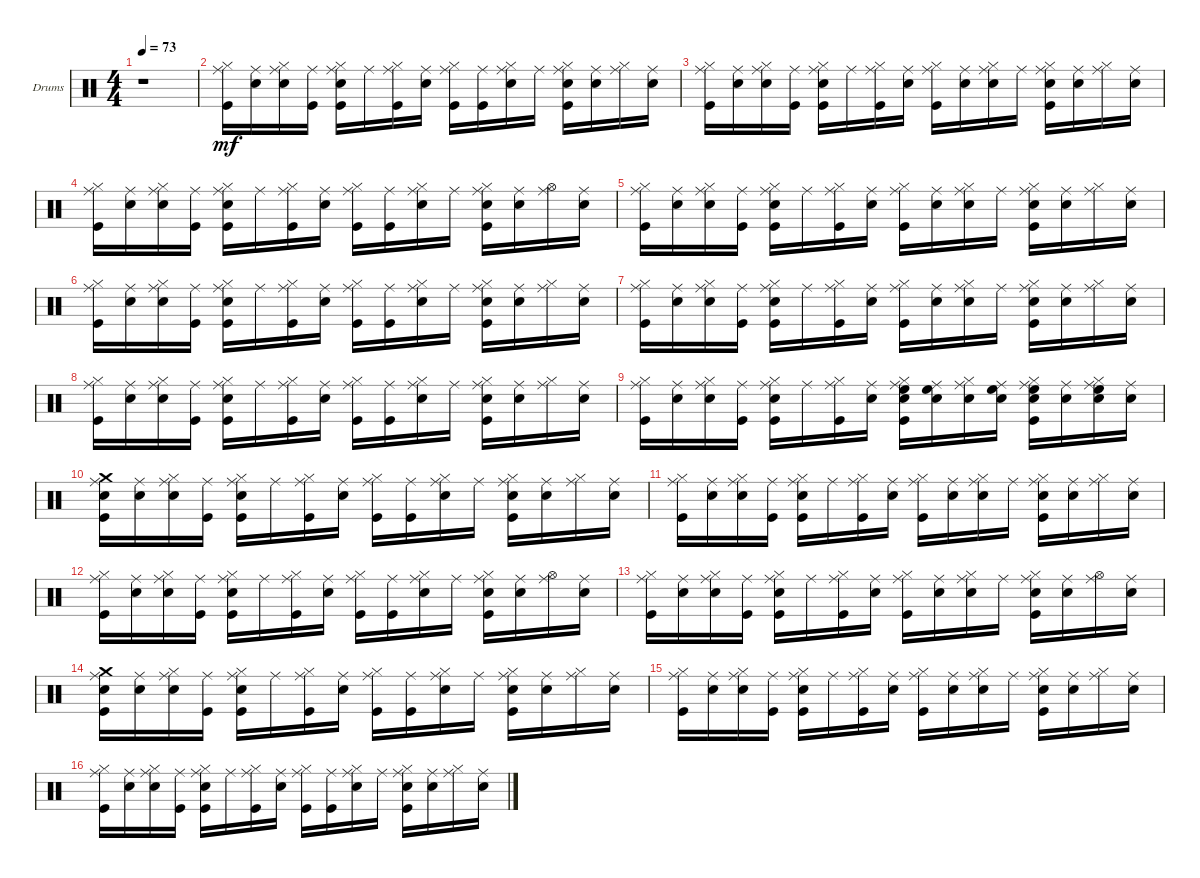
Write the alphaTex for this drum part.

\bracketExtendMode groupsimilarinstruments
\firstSystemTrackNameOrientation horizontal
\otherSystemsTrackNameOrientation horizontal
\track ("Drums" "Drums") {instrument percussion}
\staff {score}
\articulation defaults
\ts (4 4)
\tempo 73
\clef neutral
\ks c
r.1{dy mf} |
("Kick (hit)" "Hi-Hat (closed)" "Ride (middle)").16 ("Snare (hit) 2" "Ride (middle)").16 ("Hi-Hat (closed)" "Snare (hit) 2" "Ride (middle)").16 ("Kick (hit)" "Ride (middle)").16 ("Kick (hit)" "Snare (hit) 2" "Hi-Hat (closed)" "Ride (middle)").16 "Ride (middle)".16 ("Hi-Hat (closed)" "Kick (hit)" "Ride (middle)").16 ("Snare (hit) 2" "Ride (middle)").16 ("Kick (hit)" "Hi-Hat (closed)" "Ride (middle)").16 ("Kick (hit)" "Ride (middle)").16 ("Hi-Hat (closed)" "Snare (hit) 2" "Ride (middle)").16 "Ride (middle)".16 ("Kick (hit)" "Snare (hit) 2" "Hi-Hat (closed)" "Ride (middle)").16 ("Snare (hit) 2" "Ride (middle)").16 ("Hi-Hat (closed)" "Ride (middle)").16 ("Snare (hit) 2" "Ride (middle)").16 |
("Kick (hit)" "Hi-Hat (closed)" "Ride (middle)").16 ("Snare (hit) 2" "Ride (middle)").16 ("Hi-Hat (closed)" "Snare (hit) 2" "Ride (middle)").16 ("Kick (hit)" "Ride (middle)").16 ("Kick (hit)" "Snare (hit) 2" "Hi-Hat (closed)" "Ride (middle)").16 "Ride (middle)".16 ("Hi-Hat (closed)" "Kick (hit)" "Ride (middle)").16 ("Snare (hit) 2" "Ride (middle)").16 ("Kick (hit)" "Hi-Hat (closed)" "Ride (middle)").16 ("Snare (hit) 2" "Ride (middle)").16 ("Hi-Hat (closed)" "Snare (hit) 2" "Ride (middle)").16 "Ride (middle)".16 ("Kick (hit)" "Snare (hit) 2" "Hi-Hat (closed)" "Ride (middle)").16 ("Snare (hit) 2" "Ride (middle)").16 ("Hi-Hat (closed)" "Ride (middle)").16 ("Snare (hit) 2" "Ride (middle)").16 |
("Kick (hit)" "Hi-Hat (closed)" "Ride (middle)").16 ("Snare (hit) 2" "Ride (middle)").16 ("Hi-Hat (closed)" "Snare (hit) 2" "Ride (middle)").16 ("Kick (hit)" "Ride (middle)").16 ("Kick (hit)" "Snare (hit) 2" "Hi-Hat (closed)" "Ride (middle)").16 "Ride (middle)".16 ("Hi-Hat (closed)" "Kick (hit)" "Ride (middle)").16 ("Snare (hit) 2" "Ride (middle)").16 ("Kick (hit)" "Hi-Hat (closed)" "Ride (middle)").16 ("Kick (hit)" "Ride (middle)").16 ("Hi-Hat (closed)" "Snare (hit) 2" "Ride (middle)").16 "Ride (middle)".16 ("Kick (hit)" "Snare (hit) 2" "Hi-Hat (closed)" "Ride (middle)").16 ("Snare (hit) 2" "Ride (middle)").16 ("Hi-Hat (open)" "Ride (middle)").16 ("Snare (hit) 2" "Ride (middle)").16 |
("Kick (hit)" "Hi-Hat (closed)" "Ride (middle)").16 ("Snare (hit) 2" "Ride (middle)").16 ("Hi-Hat (closed)" "Snare (hit) 2" "Ride (middle)").16 ("Kick (hit)" "Ride (middle)").16 ("Kick (hit)" "Snare (hit) 2" "Hi-Hat (closed)" "Ride (middle)").16 "Ride (middle)".16 ("Hi-Hat (closed)" "Kick (hit)" "Ride (middle)").16 ("Snare (hit) 2" "Ride (middle)").16 ("Kick (hit)" "Hi-Hat (closed)" "Ride (middle)").16 ("Snare (hit) 2" "Ride (middle)").16 ("Hi-Hat (closed)" "Snare (hit) 2" "Ride (middle)").16 "Ride (middle)".16 ("Kick (hit)" "Snare (hit) 2" "Hi-Hat (closed)" "Ride (middle)").16 ("Snare (hit) 2" "Ride (middle)").16 ("Hi-Hat (closed)" "Ride (middle)").16 ("Snare (hit) 2" "Ride (middle)").16 |
("Kick (hit)" "Hi-Hat (closed)" "Ride (middle)").16 ("Snare (hit) 2" "Ride (middle)").16 ("Hi-Hat (closed)" "Snare (hit) 2" "Ride (middle)").16 ("Kick (hit)" "Ride (middle)").16 ("Kick (hit)" "Snare (hit) 2" "Hi-Hat (closed)" "Ride (middle)").16 "Ride (middle)".16 ("Hi-Hat (closed)" "Kick (hit)" "Ride (middle)").16 ("Snare (hit) 2" "Ride (middle)").16 ("Kick (hit)" "Hi-Hat (closed)" "Ride (middle)").16 ("Kick (hit)" "Ride (middle)").16 ("Hi-Hat (closed)" "Snare (hit) 2" "Ride (middle)").16 "Ride (middle)".16 ("Kick (hit)" "Snare (hit) 2" "Hi-Hat (closed)" "Ride (middle)").16 ("Snare (hit) 2" "Ride (middle)").16 ("Hi-Hat (closed)" "Ride (middle)").16 ("Snare (hit) 2" "Ride (middle)").16 |
("Kick (hit)" "Hi-Hat (closed)" "Ride (middle)").16 ("Snare (hit) 2" "Ride (middle)").16 ("Hi-Hat (closed)" "Snare (hit) 2" "Ride (middle)").16 ("Kick (hit)" "Ride (middle)").16 ("Kick (hit)" "Snare (hit) 2" "Hi-Hat (closed)" "Ride (middle)").16 "Ride (middle)".16 ("Hi-Hat (closed)" "Kick (hit)" "Ride (middle)").16 ("Snare (hit) 2" "Ride (middle)").16 ("Kick (hit)" "Hi-Hat (closed)" "Ride (middle)").16 ("Snare (hit) 2" "Ride (middle)").16 ("Hi-Hat (closed)" "Snare (hit) 2" "Ride (middle)").16 "Ride (middle)".16 ("Kick (hit)" "Snare (hit) 2" "Hi-Hat (closed)" "Ride (middle)").16 ("Snare (hit) 2" "Ride (middle)").16 ("Hi-Hat (closed)" "Ride (middle)").16 ("Snare (hit) 2" "Ride (middle)").16 |
("Kick (hit)" "Hi-Hat (closed)" "Ride (middle)").16 ("Snare (hit) 2" "Ride (middle)").16 ("Hi-Hat (closed)" "Snare (hit) 2" "Ride (middle)").16 ("Kick (hit)" "Ride (middle)").16 ("Kick (hit)" "Snare (hit) 2" "Hi-Hat (closed)" "Ride (middle)").16 "Ride (middle)".16 ("Hi-Hat (closed)" "Kick (hit)" "Ride (middle)").16 ("Snare (hit) 2" "Ride (middle)").16 ("Kick (hit)" "Hi-Hat (closed)" "Ride (middle)").16 ("Kick (hit)" "Ride (middle)").16 ("Hi-Hat (closed)" "Snare (hit) 2" "Ride (middle)").16 "Ride (middle)".16 ("Kick (hit)" "Snare (hit) 2" "Hi-Hat (closed)" "Ride (middle)").16 ("Snare (hit) 2" "Ride (middle)").16 ("Hi-Hat (closed)" "Ride (middle)").16 ("Snare (hit) 2" "Ride (middle)").16 |
("Kick (hit)" "Hi-Hat (closed)" "Ride (middle)").16 ("Snare (hit) 2" "Ride (middle)").16 ("Hi-Hat (closed)" "Snare (hit) 2" "Ride (middle)").16 ("Kick (hit)" "Ride (middle)").16 ("Kick (hit)" "Snare (hit) 2" "Hi-Hat (closed)" "Ride (middle)").16 "Ride (middle)".16 ("Hi-Hat (closed)" "Kick (hit)" "Ride (middle)").16 ("Snare (hit) 2" "Ride (middle)").16 ("Snare (hit) 2" "Hi-Hat (closed)" "High Floor Tom (hit)" "Kick (hit)" "Ride (middle)").16 ("Snare (hit) 2" "High Floor Tom (hit)" "Ride (middle)").16 ("Hi-Hat (closed)" "Snare (hit) 2" "Ride (middle)").16 ("Snare (hit) 2" "High Floor Tom (hit)" "Ride (middle)").16 ("Kick (hit)" "Snare (hit) 2" "Hi-Hat (closed)" "High Floor Tom (hit)" "Ride (middle)").16 ("Snare (hit) 2" "Ride (middle)").16 ("Snare (hit) 2" "Hi-Hat (closed)" "High Floor Tom (hit)" "Ride (middle)").16 ("Snare (hit) 2" "Ride (middle)").16 |
("Kick (hit)" "Snare (hit) 2" "Crash medium (hit)" "Ride (middle)").16 ("Snare (hit) 2" "Ride (middle)").16 ("Hi-Hat (closed)" "Snare (hit) 2" "Ride (middle)").16 ("Kick (hit)" "Ride (middle)").16 ("Kick (hit)" "Snare (hit) 2" "Hi-Hat (closed)" "Ride (middle)").16 "Ride (middle)".16 ("Hi-Hat (closed)" "Kick (hit)" "Ride (middle)").16 ("Snare (hit) 2" "Ride (middle)").16 ("Kick (hit)" "Hi-Hat (closed)" "Ride (middle)").16 ("Kick (hit)" "Ride (middle)").16 ("Hi-Hat (closed)" "Snare (hit) 2" "Ride (middle)").16 "Ride (middle)".16 ("Kick (hit)" "Snare (hit) 2" "Hi-Hat (closed)" "Ride (middle)").16 ("Snare (hit) 2" "Ride (middle)").16 ("Hi-Hat (closed)" "Ride (middle)").16 ("Snare (hit) 2" "Ride (middle)").16 |
("Kick (hit)" "Hi-Hat (closed)" "Ride (middle)").16 ("Snare (hit) 2" "Ride (middle)").16 ("Hi-Hat (closed)" "Snare (hit) 2" "Ride (middle)").16 ("Kick (hit)" "Ride (middle)").16 ("Kick (hit)" "Snare (hit) 2" "Hi-Hat (closed)" "Ride (middle)").16 "Ride (middle)".16 ("Hi-Hat (closed)" "Kick (hit)" "Ride (middle)").16 ("Snare (hit) 2" "Ride (middle)").16 ("Kick (hit)" "Hi-Hat (closed)" "Ride (middle)").16 ("Snare (hit) 2" "Ride (middle)").16 ("Hi-Hat (closed)" "Snare (hit) 2" "Ride (middle)").16 "Ride (middle)".16 ("Kick (hit)" "Snare (hit) 2" "Hi-Hat (closed)" "Ride (middle)").16 ("Snare (hit) 2" "Ride (middle)").16 ("Hi-Hat (closed)" "Ride (middle)").16 ("Snare (hit) 2" "Ride (middle)").16 |
("Kick (hit)" "Hi-Hat (closed)" "Ride (middle)").16 ("Snare (hit) 2" "Ride (middle)").16 ("Hi-Hat (closed)" "Snare (hit) 2" "Ride (middle)").16 ("Kick (hit)" "Ride (middle)").16 ("Kick (hit)" "Snare (hit) 2" "Hi-Hat (closed)" "Ride (middle)").16 "Ride (middle)".16 ("Hi-Hat (closed)" "Kick (hit)" "Ride (middle)").16 ("Snare (hit) 2" "Ride (middle)").16 ("Kick (hit)" "Hi-Hat (closed)" "Ride (middle)").16 ("Kick (hit)" "Ride (middle)").16 ("Hi-Hat (closed)" "Snare (hit) 2" "Ride (middle)").16 "Ride (middle)".16 ("Kick (hit)" "Snare (hit) 2" "Hi-Hat (closed)" "Ride (middle)").16 ("Snare (hit) 2" "Ride (middle)").16 ("Hi-Hat (open)" "Ride (middle)").16 ("Snare (hit) 2" "Ride (middle)").16 |
("Kick (hit)" "Hi-Hat (closed)" "Ride (middle)").16 ("Snare (hit) 2" "Ride (middle)").16 ("Hi-Hat (closed)" "Snare (hit) 2" "Ride (middle)").16 ("Kick (hit)" "Ride (middle)").16 ("Kick (hit)" "Snare (hit) 2" "Hi-Hat (closed)" "Ride (middle)").16 "Ride (middle)".16 ("Hi-Hat (closed)" "Kick (hit)" "Ride (middle)").16 ("Snare (hit) 2" "Ride (middle)").16 ("Kick (hit)" "Hi-Hat (closed)" "Ride (middle)").16 ("Snare (hit) 2" "Ride (middle)").16 ("Hi-Hat (closed)" "Snare (hit) 2" "Ride (middle)").16 "Ride (middle)".16 ("Kick (hit)" "Snare (hit) 2" "Hi-Hat (closed)" "Ride (middle)").16 ("Snare (hit) 2" "Ride (middle)").16 ("Hi-Hat (open)" "Ride (middle)").16 ("Snare (hit) 2" "Ride (middle)").16 |
("Kick (hit)" "Snare (hit) 2" "Crash medium (hit)" "Ride (middle)").16 ("Snare (hit) 2" "Ride (middle)").16 ("Hi-Hat (closed)" "Snare (hit) 2" "Ride (middle)").16 ("Kick (hit)" "Ride (middle)").16 ("Kick (hit)" "Snare (hit) 2" "Hi-Hat (closed)" "Ride (middle)").16 "Ride (middle)".16 ("Hi-Hat (closed)" "Kick (hit)" "Ride (middle)").16 ("Snare (hit) 2" "Ride (middle)").16 ("Kick (hit)" "Hi-Hat (closed)" "Ride (middle)").16 ("Kick (hit)" "Ride (middle)").16 ("Hi-Hat (closed)" "Snare (hit) 2" "Ride (middle)").16 "Ride (middle)".16 ("Kick (hit)" "Snare (hit) 2" "Hi-Hat (closed)" "Ride (middle)").16 ("Snare (hit) 2" "Ride (middle)").16 ("Hi-Hat (closed)" "Ride (middle)").16 ("Snare (hit) 2" "Ride (middle)").16 |
("Kick (hit)" "Hi-Hat (closed)" "Ride (middle)").16 ("Snare (hit) 2" "Ride (middle)").16 ("Hi-Hat (closed)" "Snare (hit) 2" "Ride (middle)").16 ("Kick (hit)" "Ride (middle)").16 ("Kick (hit)" "Snare (hit) 2" "Hi-Hat (closed)" "Ride (middle)").16 "Ride (middle)".16 ("Hi-Hat (closed)" "Kick (hit)" "Ride (middle)").16 ("Snare (hit) 2" "Ride (middle)").16 ("Kick (hit)" "Hi-Hat (closed)" "Ride (middle)").16 ("Snare (hit) 2" "Ride (middle)").16 ("Hi-Hat (closed)" "Snare (hit) 2" "Ride (middle)").16 "Ride (middle)".16 ("Kick (hit)" "Snare (hit) 2" "Hi-Hat (closed)" "Ride (middle)").16 ("Snare (hit) 2" "Ride (middle)").16 ("Hi-Hat (closed)" "Ride (middle)").16 ("Snare (hit) 2" "Ride (middle)").16 |
("Kick (hit)" "Hi-Hat (closed)" "Ride (middle)").16 ("Snare (hit) 2" "Ride (middle)").16 ("Hi-Hat (closed)" "Snare (hit) 2" "Ride (middle)").16 ("Kick (hit)" "Ride (middle)").16 ("Kick (hit)" "Snare (hit) 2" "Hi-Hat (closed)" "Ride (middle)").16 "Ride (middle)".16 ("Hi-Hat (closed)" "Kick (hit)" "Ride (middle)").16 ("Snare (hit) 2" "Ride (middle)").16 ("Kick (hit)" "Hi-Hat (closed)" "Ride (middle)").16 ("Kick (hit)" "Ride (middle)").16 ("Hi-Hat (closed)" "Snare (hit) 2" "Ride (middle)").16 "Ride (middle)".16 ("Kick (hit)" "Snare (hit) 2" "Hi-Hat (closed)" "Ride (middle)").16 ("Snare (hit) 2" "Ride (middle)").16 ("Hi-Hat (closed)" "Ride (middle)").16 ("Snare (hit) 2" "Ride (middle)").16
